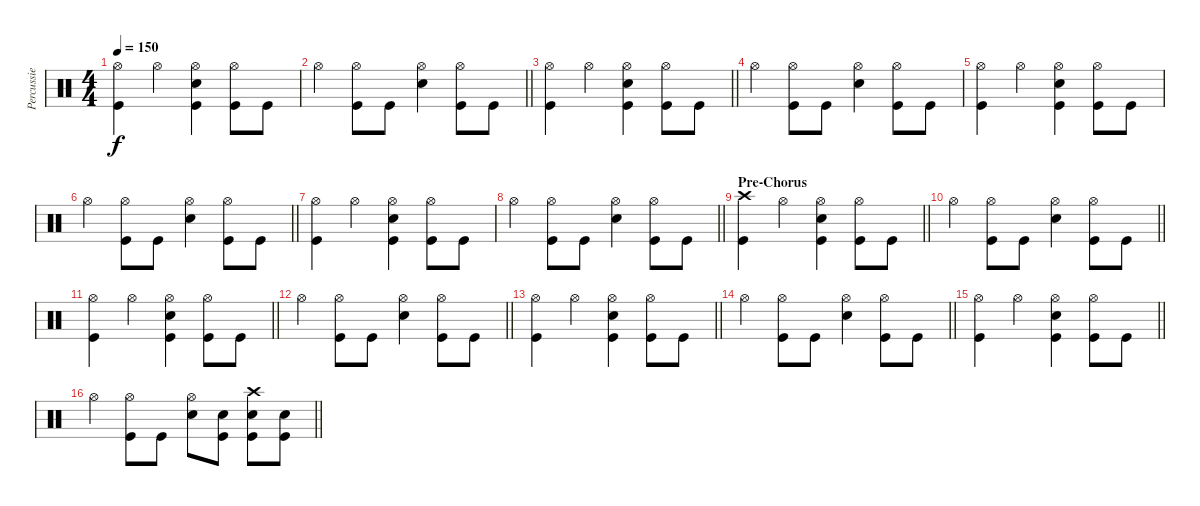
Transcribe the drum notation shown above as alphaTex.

\track ("Percussie" "Percussie") {instrument percussion}
\staff {score}
\articulation defaults
\ts (4 4)
\tempo 150
\clef neutral
\ks c
("Hi-Hat (open)" "Kick (hit)").4{dy f} "Hi-Hat (open)".4 ("Hi-Hat (open)" "Snare (hit) 2" "Kick (hit)").4 ("Hi-Hat (open)" "Kick (hit)").8 "Kick (hit)".8 |
\barLineRight lightlight "Hi-Hat (open)".4
("Hi-Hat (open)" "Kick (hit)").8 "Kick (hit)".8 ("Hi-Hat (open)" "Snare (hit) 2").4 ("Hi-Hat (open)" "Kick (hit)").8 "Kick (hit)".8 |
\barLineRight lightlight
("Hi-Hat (open)" "Kick (hit)").4 "Hi-Hat (open)".4 ("Hi-Hat (open)" "Snare (hit) 2" "Kick (hit)").4 ("Hi-Hat (open)" "Kick (hit)").8 "Kick (hit)".8 |
"Hi-Hat (open)".4 ("Hi-Hat (open)" "Kick (hit)").8 "Kick (hit)".8 ("Hi-Hat (open)" "Snare (hit) 2").4 ("Hi-Hat (open)" "Kick (hit)").8 "Kick (hit)".8 |
("Hi-Hat (open)" "Kick (hit)").4 "Hi-Hat (open)".4 ("Hi-Hat (open)" "Snare (hit) 2" "Kick (hit)").4 ("Hi-Hat (open)" "Kick (hit)").8 "Kick (hit)".8 |
\barLineRight lightlight "Hi-Hat (open)".4
("Hi-Hat (open)" "Kick (hit)").8 "Kick (hit)".8 ("Hi-Hat (open)" "Snare (hit) 2").4 ("Hi-Hat (open)" "Kick (hit)").8 "Kick (hit)".8 |
("Hi-Hat (open)" "Kick (hit)").4 "Hi-Hat (open)".4 ("Hi-Hat (open)" "Snare (hit) 2" "Kick (hit)").4 ("Hi-Hat (open)" "Kick (hit)").8 "Kick (hit)".8 |
\barLineRight lightlight "Hi-Hat (open)".4
("Hi-Hat (open)" "Kick (hit)").8 "Kick (hit)".8 ("Hi-Hat (open)" "Snare (hit) 2").4 ("Hi-Hat (open)" "Kick (hit)").8 "Kick (hit)".8 |
\section ("" "Pre-Chorus")
\barLineRight lightlight
("Crash high (hit)" "Kick (hit)").4 "Hi-Hat (open)".4 ("Hi-Hat (open)" "Snare (hit) 2" "Kick (hit)").4 ("Hi-Hat (open)" "Kick (hit)").8 "Kick (hit)".8 |
\barLineRight lightlight "Hi-Hat (open)".4
("Hi-Hat (open)" "Kick (hit)").8 "Kick (hit)".8 ("Hi-Hat (open)" "Snare (hit) 2").4 ("Hi-Hat (open)" "Kick (hit)").8 "Kick (hit)".8 |
\barLineRight lightlight
("Hi-Hat (open)" "Kick (hit)").4 "Hi-Hat (open)".4 ("Hi-Hat (open)" "Snare (hit) 2" "Kick (hit)").4 ("Hi-Hat (open)" "Kick (hit)").8 "Kick (hit)".8 |
\barLineRight lightlight "Hi-Hat (open)".4
("Hi-Hat (open)" "Kick (hit)").8 "Kick (hit)".8 ("Hi-Hat (open)" "Snare (hit) 2").4 ("Hi-Hat (open)" "Kick (hit)").8 "Kick (hit)".8 |
\barLineRight lightlight
("Hi-Hat (open)" "Kick (hit)").4 "Hi-Hat (open)".4 ("Hi-Hat (open)" "Snare (hit) 2" "Kick (hit)").4 ("Hi-Hat (open)" "Kick (hit)").8 "Kick (hit)".8 |
\barLineRight lightlight "Hi-Hat (open)".4
("Hi-Hat (open)" "Kick (hit)").8 "Kick (hit)".8 ("Hi-Hat (open)" "Snare (hit) 2").4 ("Hi-Hat (open)" "Kick (hit)").8 "Kick (hit)".8 |
\barLineRight lightlight
("Hi-Hat (open)" "Kick (hit)").4 "Hi-Hat (open)".4 ("Hi-Hat (open)" "Snare (hit) 2" "Kick (hit)").4 ("Hi-Hat (open)" "Kick (hit)").8 "Kick (hit)".8 |
\barLineRight lightlight "Hi-Hat (open)".4
("Hi-Hat (open)" "Kick (hit)").8 "Kick (hit)".8 ("Hi-Hat (open)" "Snare (hit) 2").8 ("Snare (hit) 2" "Kick (hit)").8 ("Crash high (hit)" "Snare (hit) 2" "Kick (hit)").8 ("Snare (hit) 2" "Kick (hit)").8
